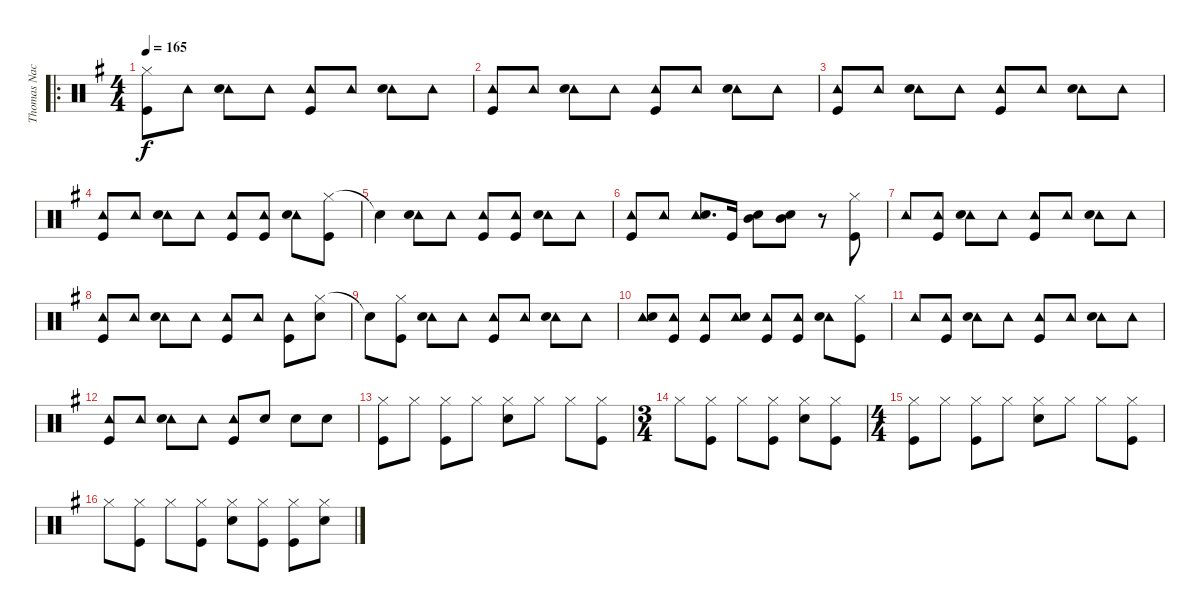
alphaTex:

\track ("Thomas Nack" "Thomas Nac") {instrument percussion}
\staff {score}
\articulation defaults
\ro
\ts (4 4)
\tempo 165
\clef neutral
\ks g
("Hi-Hat (closed)" "Kick (hit)").8{dy f} "Tambourine (hit)".8 ("Tambourine (hit)" "Snare (hit) 2").8 "Tambourine (hit)".8 ("Tambourine (hit)" "Kick (hit)").8 "Tambourine (hit)".8 ("Tambourine (hit)" "Snare (hit) 2").8 "Tambourine (hit)".8 |
("Tambourine (hit)" "Kick (hit)").8 "Tambourine (hit)".8 ("Tambourine (hit)" "Snare (hit) 2").8 "Tambourine (hit)".8 ("Tambourine (hit)" "Kick (hit)").8 "Tambourine (hit)".8 ("Tambourine (hit)" "Snare (hit) 2").8 "Tambourine (hit)".8 |
("Tambourine (hit)" "Kick (hit)").8 "Tambourine (hit)".8 ("Tambourine (hit)" "Snare (hit) 2").8 "Tambourine (hit)".8 ("Tambourine (hit)" "Kick (hit)").8 "Tambourine (hit)".8 ("Tambourine (hit)" "Snare (hit) 2").8 "Tambourine (hit)".8 |
("Tambourine (hit)" "Kick (hit)").8 "Tambourine (hit)".8 ("Tambourine (hit)" "Snare (hit) 2").8 "Tambourine (hit)".8 ("Tambourine (hit)" "Kick (hit)").8 ("Tambourine (hit)" "Kick (hit)").8 ("Tambourine (hit)" "Snare (hit) 2").8 ("Hi-Hat (closed)" "Kick (hit)").8 |
"Snare (hit)"{t}.4 ("Tambourine (hit)" "Snare (hit) 2").8 "Tambourine (hit)".8 ("Tambourine (hit)" "Kick (hit)").8 ("Tambourine (hit)" "Kick (hit)").8 ("Tambourine (hit)" "Snare (hit) 2").8 "Tambourine (hit)".8 |
("Tambourine (hit)" "Kick (hit)").8 "Tambourine (hit)".8 ("Tambourine (hit)" "Snare (hit) 2").8{d} "Kick (hit)".16 ("Snare (hit) 2" "Mid Tom (hit)").8 ("Snare (hit) 2" "Mid Tom (hit)").8 r.8 ("Hi-Hat (closed)" "Kick (hit)").8 |
"Tambourine (hit)".8 ("Tambourine (hit)" "Kick (hit)").8 ("Tambourine (hit)" "Snare (hit) 2").8 "Tambourine (hit)".8 ("Tambourine (hit)" "Kick (hit)").8 "Tambourine (hit)".8 ("Tambourine (hit)" "Snare (hit) 2").8 "Tambourine (hit)".8 |
("Tambourine (hit)" "Kick (hit)").8 "Tambourine (hit)".8 ("Tambourine (hit)" "Snare (hit) 2").8 "Tambourine (hit)".8 ("Tambourine (hit)" "Kick (hit)").8 "Tambourine (hit)".8 ("Tambourine (hit)" "Kick (hit)").8 ("Hi-Hat (closed)" "Snare (hit) 2").8 |
"Snare (hit)"{t}.8 ("Hi-Hat (closed)" "Kick (hit)").8 ("Tambourine (hit)" "Snare (hit) 2").8 "Tambourine (hit)".8 ("Tambourine (hit)" "Kick (hit)").8 "Tambourine (hit)".8 ("Tambourine (hit)" "Snare (hit) 2").8 "Tambourine (hit)".8 |
("Tambourine (hit)" "Snare (hit) 2").8 ("Tambourine (hit)" "Kick (hit)").8 ("Tambourine (hit)" "Kick (hit)").8 ("Tambourine (hit)" "Snare (hit) 2").8 ("Tambourine (hit)" "Kick (hit)").8 ("Tambourine (hit)" "Kick (hit)").8 ("Tambourine (hit)" "Snare (hit) 2").8 ("Hi-Hat (closed)" "Kick (hit)").8 |
"Tambourine (hit)".8 ("Tambourine (hit)" "Kick (hit)").8 ("Tambourine (hit)" "Snare (hit) 2").8 "Tambourine (hit)".8 ("Tambourine (hit)" "Kick (hit)").8 "Tambourine (hit)".8 ("Tambourine (hit)" "Snare (hit) 2").8 "Tambourine (hit)".8 |
("Tambourine (hit)" "Kick (hit)").8 "Tambourine (hit)".8 ("Tambourine (hit)" "Snare (hit) 2").8 "Tambourine (hit)".8 ("Tambourine (hit)" "Kick (hit)").8 "Snare (hit) 2".8 "Snare (hit) 2".8 "Snare (hit) 2".8 |
("Hi-Hat (closed)" "Kick (hit)").8 "Hi-Hat (closed)".8 ("Hi-Hat (closed)" "Kick (hit)").8 "Hi-Hat (closed)".8 ("Hi-Hat (closed)" "Snare (hit) 2").8 "Hi-Hat (closed)".8 "Hi-Hat (closed)".8 ("Hi-Hat (closed)" "Kick (hit)").8 |
\ts (3 4)
"Hi-Hat (closed)".8 ("Hi-Hat (closed)" "Kick (hit)").8 "Hi-Hat (closed)".8 ("Hi-Hat (closed)" "Kick (hit)").8 ("Hi-Hat (closed)" "Snare (hit) 2").8 ("Hi-Hat (closed)" "Kick (hit)").8 |
\ts (4 4)
("Hi-Hat (closed)" "Kick (hit)").8 "Hi-Hat (closed)".8 ("Hi-Hat (closed)" "Kick (hit)").8 "Hi-Hat (closed)".8 ("Hi-Hat (closed)" "Snare (hit) 2").8 "Hi-Hat (closed)".8 "Hi-Hat (closed)".8 ("Hi-Hat (closed)" "Kick (hit)").8 |
"Hi-Hat (closed)".8 ("Hi-Hat (closed)" "Kick (hit)").8 "Hi-Hat (closed)".8 ("Hi-Hat (closed)" "Kick (hit)").8 ("Hi-Hat (closed)" "Snare (hit) 2").8 ("Hi-Hat (closed)" "Kick (hit)").8 ("Hi-Hat (closed)" "Kick (hit)").8 ("Hi-Hat (closed)" "Snare (hit) 2").8
